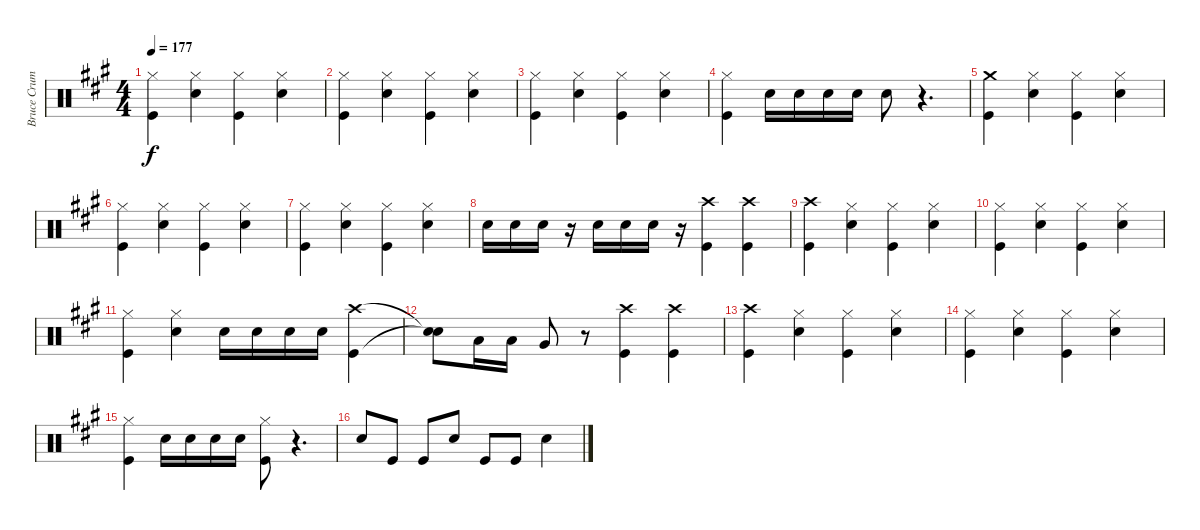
\track ("Bruce Crump Drums" "Bruce Crum") {instrument percussion}
\staff {score}
\articulation defaults
\ts (4 4)
\tempo 177
\clef neutral
\ks a
("Hi-Hat (closed)" "Kick (hit)").4{dy f} ("Hi-Hat (closed)" "Snare (hit) 2").4 ("Hi-Hat (closed)" "Kick (hit)").4 ("Hi-Hat (closed)" "Snare (hit) 2").4 |
("Hi-Hat (closed)" "Kick (hit)").4 ("Hi-Hat (closed)" "Snare (hit) 2").4 ("Hi-Hat (closed)" "Kick (hit)").4 ("Hi-Hat (closed)" "Snare (hit) 2").4 |
("Hi-Hat (closed)" "Kick (hit)").4 ("Hi-Hat (closed)" "Snare (hit) 2").4 ("Hi-Hat (closed)" "Kick (hit)").4 ("Hi-Hat (closed)" "Snare (hit) 2").4 |
("Hi-Hat (closed)" "Kick (hit)").4 "Snare (hit) 2".16 "Snare (hit) 2".16 "Snare (hit) 2".16 "Snare (hit) 2".16 "Snare (hit) 2".8 r.4{d} |
("Crash medium (hit)" "Kick (hit)").4 ("Hi-Hat (closed)" "Snare (hit) 2").4 ("Hi-Hat (closed)" "Kick (hit)").4 ("Hi-Hat (closed)" "Snare (hit) 2").4 |
("Hi-Hat (closed)" "Kick (hit)").4 ("Hi-Hat (closed)" "Snare (hit) 2").4 ("Hi-Hat (closed)" "Kick (hit)").4 ("Hi-Hat (closed)" "Snare (hit) 2").4 |
("Hi-Hat (closed)" "Kick (hit)").4 ("Hi-Hat (closed)" "Snare (hit) 2").4 ("Hi-Hat (closed)" "Kick (hit)").4 ("Hi-Hat (closed)" "Snare (hit) 2").4 |
"Snare (hit) 2".16 "Snare (hit) 2".16 "Snare (hit) 2".16 r.16 "Snare (hit) 2".16 "Snare (hit) 2".16 "Snare (hit) 2".16 r.16 ("Crash high (hit)" "Kick (hit)").4 ("Crash high (hit)" "Kick (hit)").4 |
("Crash high (hit)" "Kick (hit)").4 ("Hi-Hat (closed)" "Snare (hit) 2").4 ("Hi-Hat (closed)" "Kick (hit)").4 ("Hi-Hat (closed)" "Snare (hit) 2").4 |
("Hi-Hat (closed)" "Kick (hit)").4 ("Hi-Hat (closed)" "Snare (hit) 2").4 ("Hi-Hat (closed)" "Kick (hit)").4 ("Hi-Hat (closed)" "Snare (hit) 2").4 |
("Hi-Hat (closed)" "Kick (hit)").4 ("Hi-Hat (closed)" "Snare (hit) 2").4 "Snare (hit) 2".16 "Snare (hit) 2".16 "Snare (hit) 2".16 "Snare (hit) 2".16 ("Crash high (hit)" "Kick (hit)").4 |
("Snare (hit)"{t} "Snare (hit)"{t}).8 "Low Tom (hit)".16 "Low Tom (hit)".16 "Very Low Tom (hit)".8 r.8 ("Crash high (hit)" "Kick (hit)").4 ("Crash high (hit)" "Kick (hit)").4 |
("Crash high (hit)" "Kick (hit)").4 ("Hi-Hat (closed)" "Snare (hit) 2").4 ("Hi-Hat (closed)" "Kick (hit)").4 ("Hi-Hat (closed)" "Snare (hit) 2").4 |
("Hi-Hat (closed)" "Kick (hit)").4 ("Hi-Hat (closed)" "Snare (hit) 2").4 ("Hi-Hat (closed)" "Kick (hit)").4 ("Hi-Hat (closed)" "Snare (hit) 2").4 |
("Hi-Hat (closed)" "Kick (hit)").4 "Snare (hit) 2".16 "Snare (hit) 2".16 "Snare (hit) 2".16 "Snare (hit) 2".16 ("Hi-Hat (closed)" "Kick (hit)").8 r.4{d} |
"Snare (hit) 2".8 "Kick (hit)".8 "Kick (hit)".8 "Snare (hit) 2".8 "Kick (hit)".8 "Kick (hit)".8 "Snare (hit) 2".4
